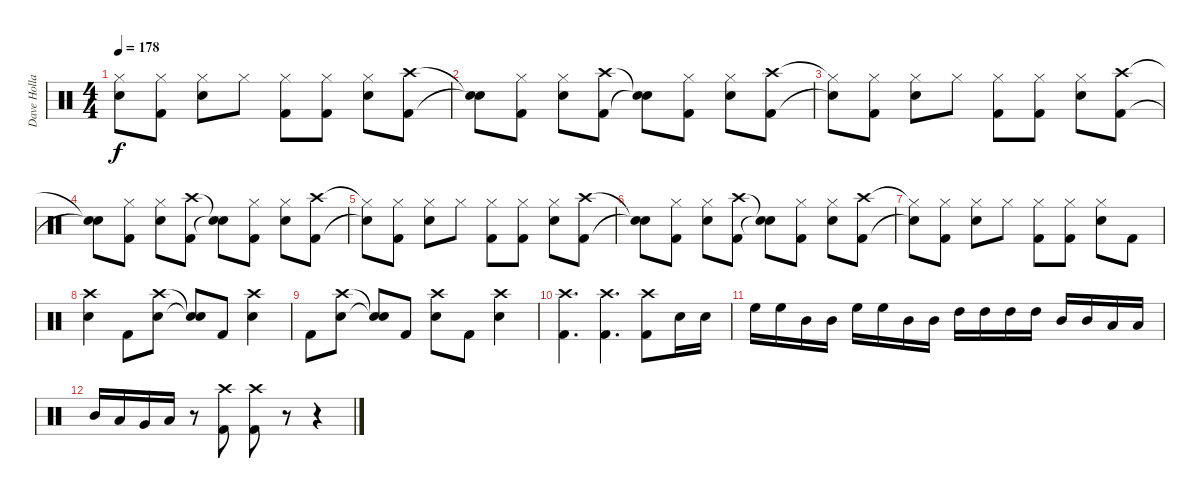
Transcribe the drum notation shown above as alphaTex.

\track ("Dave Holland" "Dave Holla") {instrument percussion}
\staff {score}
\articulation defaults
\ts (4 4)
\tempo 178
\clef neutral
\ks c
("Hi-Hat (closed)"{t} "Snare (hit)"{t}).8{dy f} ("Hi-Hat (closed)" "Kick (hit) 2").8 ("Hi-Hat (closed)" "Snare (hit) 2").8 "Hi-Hat (closed)".8 ("Hi-Hat (closed)" "Kick (hit) 2").8 ("Hi-Hat (closed)" "Kick (hit) 2").8 ("Hi-Hat (closed)" "Snare (hit) 2").8 ("Crash high (hit)" "Kick (hit) 2").8 |
("Snare (hit)"{t} "Snare (hit)"{t}).8 ("Hi-Hat (closed)" "Kick (hit) 2").8 ("Hi-Hat (closed)" "Snare (hit) 2").8 ("Crash high (hit)" "Kick (hit) 2").8 ("Snare (hit)"{t} "Snare (hit)"{t}).8 ("Hi-Hat (closed)" "Kick (hit) 2").8 ("Hi-Hat (closed)" "Snare (hit) 2").8 ("Crash high (hit)" "Kick (hit) 2").8 |
("Hi-Hat (closed)"{t} "Snare (hit)"{t}).8 ("Hi-Hat (closed)" "Kick (hit) 2").8 ("Hi-Hat (closed)" "Snare (hit) 2").8 "Hi-Hat (closed)".8 ("Hi-Hat (closed)" "Kick (hit) 2").8 ("Hi-Hat (closed)" "Kick (hit) 2").8 ("Hi-Hat (closed)" "Snare (hit) 2").8 ("Crash high (hit)" "Kick (hit) 2").8 |
("Snare (hit)"{t} "Snare (hit)"{t}).8 ("Hi-Hat (closed)" "Kick (hit) 2").8 ("Hi-Hat (closed)" "Snare (hit) 2").8 ("Crash high (hit)" "Kick (hit) 2").8 ("Snare (hit)"{t} "Snare (hit)"{t}).8 ("Hi-Hat (closed)" "Kick (hit) 2").8 ("Hi-Hat (closed)" "Snare (hit) 2").8 ("Crash high (hit)" "Kick (hit) 2").8 |
("Hi-Hat (closed)"{t} "Snare (hit)"{t}).8 ("Hi-Hat (closed)" "Kick (hit) 2").8 ("Hi-Hat (closed)" "Snare (hit) 2").8 "Hi-Hat (closed)".8 ("Hi-Hat (closed)" "Kick (hit) 2").8 ("Hi-Hat (closed)" "Kick (hit) 2").8 ("Hi-Hat (closed)" "Snare (hit) 2").8 ("Crash high (hit)" "Kick (hit) 2").8 |
("Snare (hit)"{t} "Snare (hit)"{t}).8 ("Hi-Hat (closed)" "Kick (hit) 2").8 ("Hi-Hat (closed)" "Snare (hit) 2").8 ("Crash high (hit)" "Kick (hit) 2").8 ("Snare (hit)"{t} "Snare (hit)"{t}).8 ("Hi-Hat (closed)" "Kick (hit) 2").8 ("Hi-Hat (closed)" "Snare (hit) 2").8 ("Crash high (hit)" "Kick (hit) 2").8 |
("Hi-Hat (closed)"{t} "Snare (hit)"{t}).8 ("Hi-Hat (closed)" "Kick (hit) 2").8 ("Hi-Hat (closed)" "Snare (hit) 2").8 "Hi-Hat (closed)".8 ("Hi-Hat (closed)" "Kick (hit) 2").8 ("Hi-Hat (closed)" "Kick (hit) 2").8 ("Hi-Hat (closed)" "Snare (hit) 2").8 "Kick (hit) 2".8 |
("Crash high (hit)" "Snare (hit) 2").4 "Kick (hit) 2".8 ("Crash high (hit)" "Snare (hit) 2").8 ("Snare (hit)"{t} "Snare (hit)"{t}).8 "Kick (hit) 2".8 ("Crash high (hit)" "Snare (hit) 2").4 |
"Kick (hit) 2".8 ("Crash high (hit)" "Snare (hit) 2").8 ("Snare (hit)"{t} "Snare (hit)"{t}).8 "Kick (hit) 2".8 ("Crash high (hit)" "Snare (hit) 2").8 "Kick (hit) 2".8 ("Crash high (hit)" "Snare (hit) 2").4 |
("Crash high (hit)" "Kick (hit) 2").4{d} ("Crash high (hit)" "Kick (hit) 2").4{d} ("Crash high (hit)" "Kick (hit) 2").8 "Snare (hit) 2".16 "Snare (hit) 2".16 |
"High Floor Tom (hit)".16 "High Floor Tom (hit)".16 "Mid Tom (hit)".16 "Mid Tom (hit)".16 "High Floor Tom (hit)".16 "High Floor Tom (hit)".16 "Mid Tom (hit)".16 "Mid Tom (hit)".16 "High Tom (hit)".16 "High Tom (hit)".16 "High Tom (hit)".16 "High Tom (hit)".16 "Mid Tom (hit)".16 "Mid Tom (hit)".16 "Low Tom (hit)".16 "Low Tom (hit)".16 |
"Mid Tom (hit)".16 "Low Tom (hit)".16 "Very Low Tom (hit)".16 "Low Floor Tom (hit)".16 r.8 ("Crash high (hit)" "Kick (hit) 2").8 ("Crash high (hit)" "Kick (hit) 2").8 r.8 r.4
